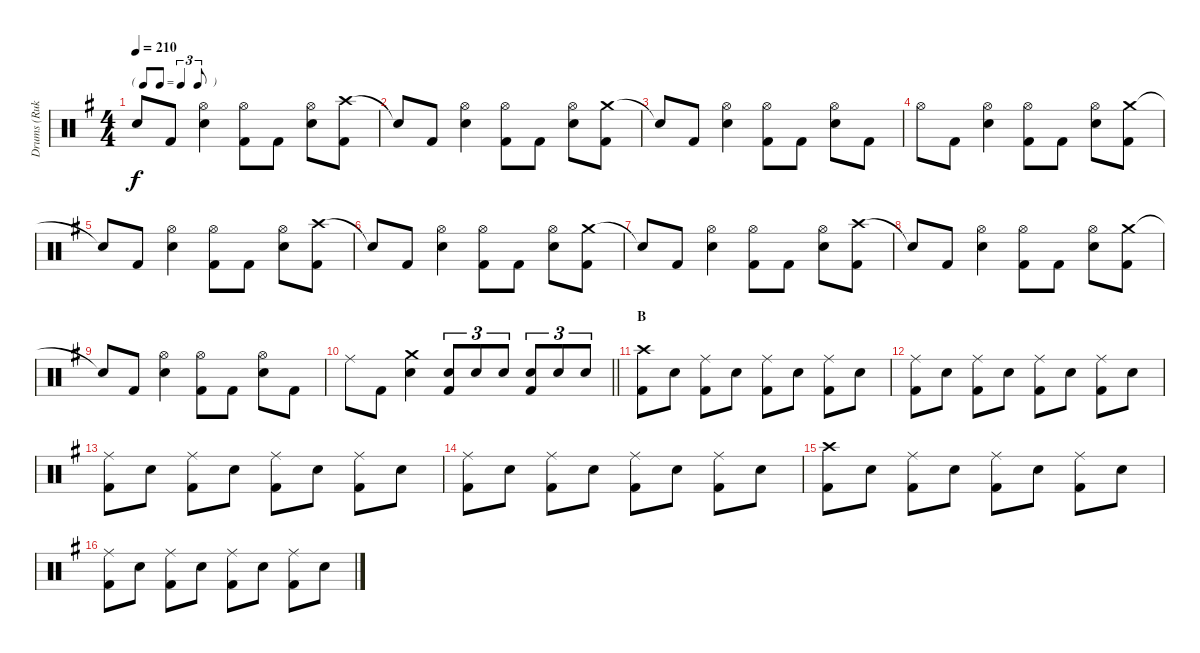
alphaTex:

\track ("Drums (Ruka)" "Drums (Ruk") {instrument percussion}
\staff {score}
\articulation defaults
\ts (4 4)
\tf triplet8th
\tempo 210
\clef neutral
\ks g "Snare (hit)"{t}.8{dy f} "Kick (hit) 2".8
("Hi-Hat (open)" "Electric Snare (hit)").4 ("Hi-Hat (open)" "Kick (hit) 2").8 "Kick (hit) 2".8 ("Hi-Hat (open)" "Electric Snare (hit)").8 ("Crash high (hit)" "Kick (hit) 2").8 |
"Snare (hit)"{t}.8 "Kick (hit) 2".8 ("Hi-Hat (open)" "Electric Snare (hit)").4 ("Hi-Hat (open)" "Kick (hit) 2").8 "Kick (hit) 2".8 ("Hi-Hat (open)" "Electric Snare (hit)").8 ("Crash medium (hit)" "Kick (hit) 2").8 |
"Snare (hit)"{t}.8 "Kick (hit) 2".8 ("Hi-Hat (open)" "Electric Snare (hit)").4 ("Hi-Hat (open)" "Kick (hit) 2").8 "Kick (hit) 2".8 ("Hi-Hat (open)" "Electric Snare (hit)").8 "Kick (hit) 2".8 |
"Hi-Hat (open)".8 "Kick (hit) 2".8 ("Hi-Hat (open)" "Electric Snare (hit)").4 ("Hi-Hat (open)" "Kick (hit) 2").8 "Kick (hit) 2".8 ("Hi-Hat (open)" "Electric Snare (hit)").8 ("Crash medium (hit)" "Kick (hit) 2").8 |
"Snare (hit)"{t}.8 "Kick (hit) 2".8 ("Hi-Hat (open)" "Electric Snare (hit)").4 ("Hi-Hat (open)" "Kick (hit) 2").8 "Kick (hit) 2".8 ("Hi-Hat (open)" "Electric Snare (hit)").8 ("Crash high (hit)" "Kick (hit) 2").8 |
"Snare (hit)"{t}.8 "Kick (hit) 2".8 ("Hi-Hat (open)" "Electric Snare (hit)").4 ("Hi-Hat (open)" "Kick (hit) 2").8 "Kick (hit) 2".8 ("Hi-Hat (open)" "Electric Snare (hit)").8 ("Crash medium (hit)" "Kick (hit) 2").8 |
"Snare (hit)"{t}.8 "Kick (hit) 2".8 ("Hi-Hat (open)" "Electric Snare (hit)").4 ("Hi-Hat (open)" "Kick (hit) 2").8 "Kick (hit) 2".8 ("Hi-Hat (open)" "Electric Snare (hit)").8 ("Crash high (hit)" "Kick (hit) 2").8 |
"Snare (hit)"{t}.8 "Kick (hit) 2".8 ("Hi-Hat (open)" "Electric Snare (hit)").4 ("Hi-Hat (open)" "Kick (hit) 2").8 "Kick (hit) 2".8 ("Hi-Hat (open)" "Electric Snare (hit)").8 ("Crash medium (hit)" "Kick (hit) 2").8 |
"Snare (hit)"{t}.8 "Kick (hit) 2".8 ("Hi-Hat (open)" "Electric Snare (hit)").4 ("Hi-Hat (open)" "Kick (hit) 2").8 "Kick (hit) 2".8 ("Hi-Hat (open)" "Electric Snare (hit)").8 "Kick (hit) 2".8 |
\barLineRight lightlight "Ride (middle)".8 "Kick (hit) 2".8
("Crash medium (hit)" "Electric Snare (hit)").4 ("Electric Snare (hit)" "Kick (hit) 2").8{tu (3 2)} "Electric Snare (hit)".8{tu (3 2)} "Electric Snare (hit)".8{tu (3 2)} ("Electric Snare (hit)" "Kick (hit) 2").8{tu (3 2)} "Electric Snare (hit)".8{tu (3 2)} "Electric Snare (hit)".8{tu (3 2)} |
\section ("" "B")
("Crash high (hit)" "Kick (hit) 2").8 "Electric Snare (hit)".8 ("Ride (middle)" "Kick (hit) 2").8 "Electric Snare (hit)".8 ("Ride (middle)" "Kick (hit) 2").8 "Electric Snare (hit)".8 ("Ride (middle)" "Kick (hit) 2").8 "Electric Snare (hit)".8 |
("Ride (middle)" "Kick (hit) 2").8 "Electric Snare (hit)".8 ("Ride (middle)" "Kick (hit) 2").8 "Electric Snare (hit)".8 ("Ride (middle)" "Kick (hit) 2").8 "Electric Snare (hit)".8 ("Ride (middle)" "Kick (hit) 2").8 "Electric Snare (hit)".8 |
("Ride (middle)" "Kick (hit) 2").8 "Electric Snare (hit)".8 ("Ride (middle)" "Kick (hit) 2").8 "Electric Snare (hit)".8 ("Ride (middle)" "Kick (hit) 2").8 "Electric Snare (hit)".8 ("Ride (middle)" "Kick (hit) 2").8 "Electric Snare (hit)".8 |
("Ride (middle)" "Kick (hit) 2").8 "Electric Snare (hit)".8 ("Ride (middle)" "Kick (hit) 2").8 "Electric Snare (hit)".8 ("Ride (middle)" "Kick (hit) 2").8 "Electric Snare (hit)".8 ("Ride (middle)" "Kick (hit) 2").8 "Electric Snare (hit)".8 |
("Crash high (hit)" "Kick (hit) 2").8 "Electric Snare (hit)".8 ("Ride (middle)" "Kick (hit) 2").8 "Electric Snare (hit)".8 ("Ride (middle)" "Kick (hit) 2").8 "Electric Snare (hit)".8 ("Ride (middle)" "Kick (hit) 2").8 "Electric Snare (hit)".8 |
("Ride (middle)" "Kick (hit) 2").8 "Electric Snare (hit)".8 ("Ride (middle)" "Kick (hit) 2").8 "Electric Snare (hit)".8 ("Ride (middle)" "Kick (hit) 2").8 "Electric Snare (hit)".8 ("Ride (middle)" "Kick (hit) 2").8 "Electric Snare (hit)".8
